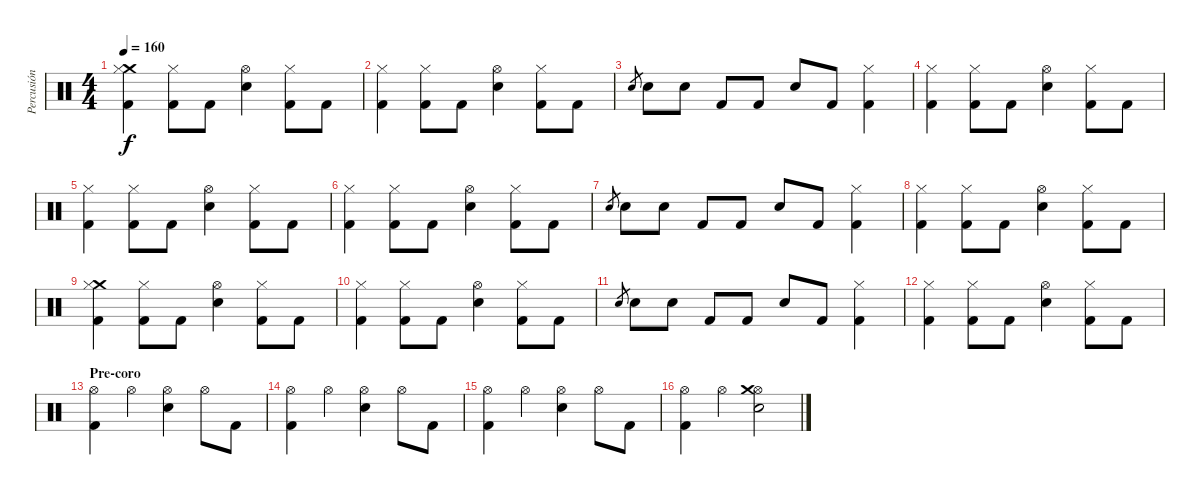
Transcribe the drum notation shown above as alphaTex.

\track ("Percusión" "Percusión") {instrument percussion}
\staff {score}
\articulation defaults
\ts (4 4)
\tempo 160
\clef neutral
\ks c
("Crash medium (hit)" "Hi-Hat (closed)" "Kick (hit) 2").4{dy f} ("Hi-Hat (closed)" "Kick (hit) 2").8 "Kick (hit) 2".8 ("Hi-Hat (open)" "Snare (hit) 2").4 ("Hi-Hat (closed)" "Kick (hit) 2").8 "Kick (hit) 2".8 |
("Hi-Hat (closed)" "Kick (hit) 2").4 ("Hi-Hat (closed)" "Kick (hit) 2").8 "Kick (hit) 2".8 ("Hi-Hat (open)" "Snare (hit) 2").4 ("Hi-Hat (closed)" "Kick (hit) 2").8 "Kick (hit) 2".8 |
"Snare (hit) 2".8{gr} "Snare (hit) 2".8 "Snare (hit) 2".8 "Kick (hit) 2".8 "Kick (hit) 2".8 "Snare (hit) 2".8 "Kick (hit) 2".8 ("Hi-Hat (closed)" "Kick (hit) 2").4 |
("Hi-Hat (closed)" "Kick (hit) 2").4 ("Hi-Hat (closed)" "Kick (hit) 2").8 "Kick (hit) 2".8 ("Hi-Hat (open)" "Snare (hit) 2").4 ("Hi-Hat (closed)" "Kick (hit) 2").8 "Kick (hit) 2".8 |
("Hi-Hat (closed)" "Kick (hit) 2").4 ("Hi-Hat (closed)" "Kick (hit) 2").8 "Kick (hit) 2".8 ("Hi-Hat (open)" "Snare (hit) 2").4 ("Hi-Hat (closed)" "Kick (hit) 2").8 "Kick (hit) 2".8 |
("Hi-Hat (closed)" "Kick (hit) 2").4 ("Hi-Hat (closed)" "Kick (hit) 2").8 "Kick (hit) 2".8 ("Hi-Hat (open)" "Snare (hit) 2").4 ("Hi-Hat (closed)" "Kick (hit) 2").8 "Kick (hit) 2".8 |
"Snare (hit) 2".8{gr} "Snare (hit) 2".8 "Snare (hit) 2".8 "Kick (hit) 2".8 "Kick (hit) 2".8 "Snare (hit) 2".8 "Kick (hit) 2".8 ("Hi-Hat (closed)" "Kick (hit) 2").4 |
("Hi-Hat (closed)" "Kick (hit) 2").4 ("Hi-Hat (closed)" "Kick (hit) 2").8 "Kick (hit) 2".8 ("Hi-Hat (open)" "Snare (hit) 2").4 ("Hi-Hat (closed)" "Kick (hit) 2").8 "Kick (hit) 2".8 |
("Crash medium (hit)" "Hi-Hat (closed)" "Kick (hit) 2").4 ("Hi-Hat (closed)" "Kick (hit) 2").8 "Kick (hit) 2".8 ("Hi-Hat (open)" "Snare (hit) 2").4 ("Hi-Hat (closed)" "Kick (hit) 2").8 "Kick (hit) 2".8 |
("Hi-Hat (closed)" "Kick (hit) 2").4 ("Hi-Hat (closed)" "Kick (hit) 2").8 "Kick (hit) 2".8 ("Hi-Hat (open)" "Snare (hit) 2").4 ("Hi-Hat (closed)" "Kick (hit) 2").8 "Kick (hit) 2".8 |
"Snare (hit) 2".8{gr} "Snare (hit) 2".8 "Snare (hit) 2".8 "Kick (hit) 2".8 "Kick (hit) 2".8 "Snare (hit) 2".8 "Kick (hit) 2".8 ("Hi-Hat (closed)" "Kick (hit) 2").4 |
("Hi-Hat (closed)" "Kick (hit) 2").4 ("Hi-Hat (closed)" "Kick (hit) 2").8 "Kick (hit) 2".8 ("Hi-Hat (open)" "Snare (hit) 2").4 ("Hi-Hat (closed)" "Kick (hit) 2").8 "Kick (hit) 2".8 |
\section ("" "Pre-coro")
("Hi-Hat (open)" "Kick (hit) 2").4 "Hi-Hat (open)".4 ("Hi-Hat (open)" "Snare (hit) 2").4 "Hi-Hat (open)".8 "Kick (hit) 2".8 |
("Hi-Hat (open)" "Kick (hit) 2").4 "Hi-Hat (open)".4 ("Hi-Hat (open)" "Snare (hit) 2").4 "Hi-Hat (open)".8 "Kick (hit) 2".8 |
("Hi-Hat (open)" "Kick (hit) 2").4 "Hi-Hat (open)".4 ("Hi-Hat (open)" "Snare (hit) 2").4 "Hi-Hat (open)".8 "Kick (hit) 2".8 |
("Hi-Hat (open)" "Kick (hit) 2").4 "Hi-Hat (open)".4 ("Hi-Hat (open)" "Snare (hit) 2" "Crash medium (hit)").2
